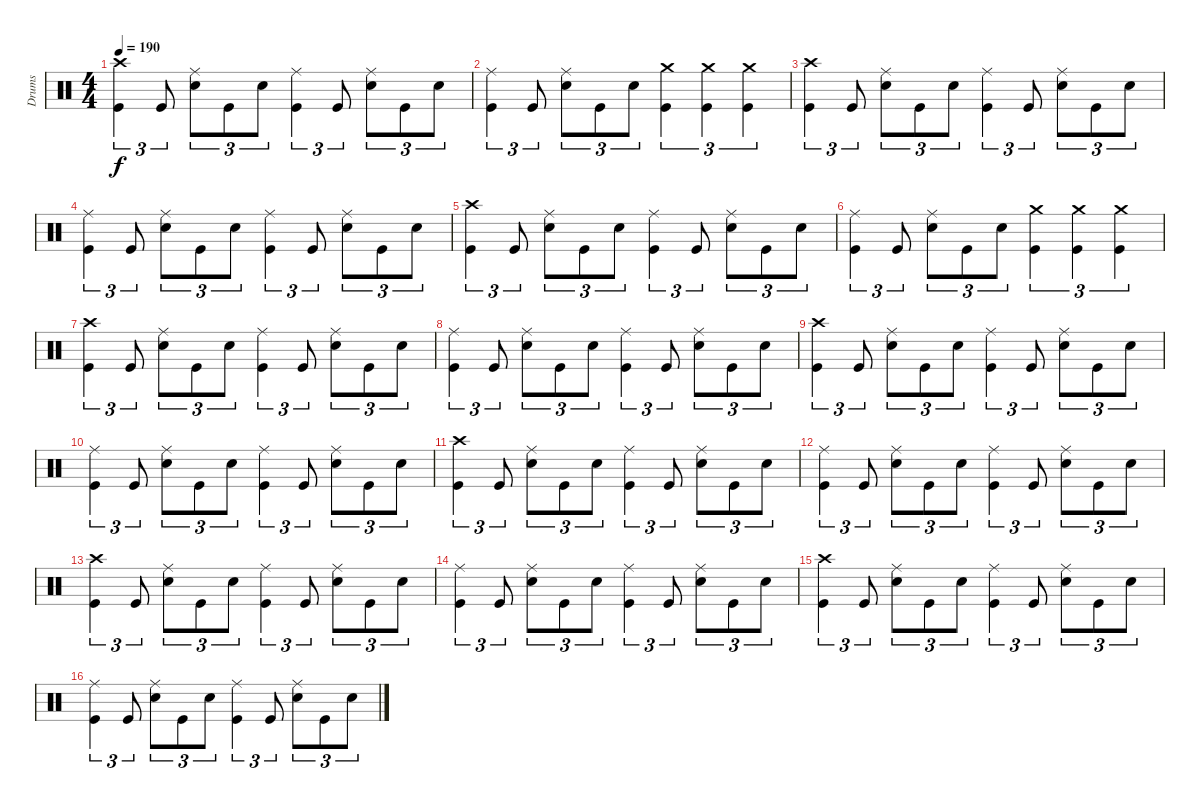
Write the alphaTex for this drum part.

\track ("Drums" "Drums") {instrument percussion}
\staff {score}
\articulation defaults
\ts (4 4)
\tempo 190
\clef neutral
\ks c
("Crash high (hit)" "Kick (hit)").4{tu (3 2) dy f} "Kick (hit)".8{tu (3 2)} ("Ride (middle)" "Snare (hit) 2").8{tu (3 2)} "Kick (hit)".8{tu (3 2)} "Snare (hit) 2".8{tu (3 2)} ("Ride (middle)" "Kick (hit)").4{tu (3 2)} "Kick (hit)".8{tu (3 2)} ("Ride (middle)" "Snare (hit) 2").8{tu (3 2)} "Kick (hit)".8{tu (3 2)} "Snare (hit) 2".8{tu (3 2)} |
("Ride (middle)" "Kick (hit)").4{tu (3 2)} "Kick (hit)".8{tu (3 2)} ("Ride (middle)" "Snare (hit) 2").8{tu (3 2)} "Kick (hit)".8{tu (3 2)} "Snare (hit) 2".8{tu (3 2)} ("Crash medium (hit)" "Kick (hit)").4{tu (3 2)} ("Crash medium (hit)" "Kick (hit)").4{tu (3 2)} ("Crash medium (hit)" "Kick (hit)").4{tu (3 2)} |
("Crash high (hit)" "Kick (hit)").4{tu (3 2)} "Kick (hit)".8{tu (3 2)} ("Ride (middle)" "Snare (hit) 2").8{tu (3 2)} "Kick (hit)".8{tu (3 2)} "Snare (hit) 2".8{tu (3 2)} ("Ride (middle)" "Kick (hit)").4{tu (3 2)} "Kick (hit)".8{tu (3 2)} ("Ride (middle)" "Snare (hit) 2").8{tu (3 2)} "Kick (hit)".8{tu (3 2)} "Snare (hit) 2".8{tu (3 2)} |
("Ride (middle)" "Kick (hit)").4{tu (3 2)} "Kick (hit)".8{tu (3 2)} ("Ride (middle)" "Snare (hit) 2").8{tu (3 2)} "Kick (hit)".8{tu (3 2)} "Snare (hit) 2".8{tu (3 2)} ("Ride (middle)" "Kick (hit)").4{tu (3 2)} "Kick (hit)".8{tu (3 2)} ("Ride (middle)" "Snare (hit) 2").8{tu (3 2)} "Kick (hit)".8{tu (3 2)} "Snare (hit) 2".8{tu (3 2)} |
("Crash high (hit)" "Kick (hit)").4{tu (3 2)} "Kick (hit)".8{tu (3 2)} ("Ride (middle)" "Snare (hit) 2").8{tu (3 2)} "Kick (hit)".8{tu (3 2)} "Snare (hit) 2".8{tu (3 2)} ("Ride (middle)" "Kick (hit)").4{tu (3 2)} "Kick (hit)".8{tu (3 2)} ("Ride (middle)" "Snare (hit) 2").8{tu (3 2)} "Kick (hit)".8{tu (3 2)} "Snare (hit) 2".8{tu (3 2)} |
("Ride (middle)" "Kick (hit)").4{tu (3 2)} "Kick (hit)".8{tu (3 2)} ("Ride (middle)" "Snare (hit) 2").8{tu (3 2)} "Kick (hit)".8{tu (3 2)} "Snare (hit) 2".8{tu (3 2)} ("Crash medium (hit)" "Kick (hit)").4{tu (3 2)} ("Crash medium (hit)" "Kick (hit)").4{tu (3 2)} ("Crash medium (hit)" "Kick (hit)").4{tu (3 2)} |
("Crash high (hit)" "Kick (hit)").4{tu (3 2)} "Kick (hit)".8{tu (3 2)} ("Ride (middle)" "Snare (hit) 2").8{tu (3 2)} "Kick (hit)".8{tu (3 2)} "Snare (hit) 2".8{tu (3 2)} ("Ride (middle)" "Kick (hit)").4{tu (3 2)} "Kick (hit)".8{tu (3 2)} ("Ride (middle)" "Snare (hit) 2").8{tu (3 2)} "Kick (hit)".8{tu (3 2)} "Snare (hit) 2".8{tu (3 2)} |
("Ride (middle)" "Kick (hit)").4{tu (3 2)} "Kick (hit)".8{tu (3 2)} ("Ride (middle)" "Snare (hit) 2").8{tu (3 2)} "Kick (hit)".8{tu (3 2)} "Snare (hit) 2".8{tu (3 2)} ("Ride (middle)" "Kick (hit)").4{tu (3 2)} "Kick (hit)".8{tu (3 2)} ("Ride (middle)" "Snare (hit) 2").8{tu (3 2)} "Kick (hit)".8{tu (3 2)} "Snare (hit) 2".8{tu (3 2)} |
("Crash high (hit)" "Kick (hit)").4{tu (3 2)} "Kick (hit)".8{tu (3 2)} ("Ride (middle)" "Snare (hit) 2").8{tu (3 2)} "Kick (hit)".8{tu (3 2)} "Snare (hit) 2".8{tu (3 2)} ("Ride (middle)" "Kick (hit)").4{tu (3 2)} "Kick (hit)".8{tu (3 2)} ("Ride (middle)" "Snare (hit) 2").8{tu (3 2)} "Kick (hit)".8{tu (3 2)} "Snare (hit) 2".8{tu (3 2)} |
("Ride (middle)" "Kick (hit)").4{tu (3 2)} "Kick (hit)".8{tu (3 2)} ("Ride (middle)" "Snare (hit) 2").8{tu (3 2)} "Kick (hit)".8{tu (3 2)} "Snare (hit) 2".8{tu (3 2)} ("Ride (middle)" "Kick (hit)").4{tu (3 2)} "Kick (hit)".8{tu (3 2)} ("Ride (middle)" "Snare (hit) 2").8{tu (3 2)} "Kick (hit)".8{tu (3 2)} "Snare (hit) 2".8{tu (3 2)} |
("Crash high (hit)" "Kick (hit)").4{tu (3 2)} "Kick (hit)".8{tu (3 2)} ("Ride (middle)" "Snare (hit) 2").8{tu (3 2)} "Kick (hit)".8{tu (3 2)} "Snare (hit) 2".8{tu (3 2)} ("Ride (middle)" "Kick (hit)").4{tu (3 2)} "Kick (hit)".8{tu (3 2)} ("Ride (middle)" "Snare (hit) 2").8{tu (3 2)} "Kick (hit)".8{tu (3 2)} "Snare (hit) 2".8{tu (3 2)} |
("Ride (middle)" "Kick (hit)").4{tu (3 2)} "Kick (hit)".8{tu (3 2)} ("Ride (middle)" "Snare (hit) 2").8{tu (3 2)} "Kick (hit)".8{tu (3 2)} "Snare (hit) 2".8{tu (3 2)} ("Ride (middle)" "Kick (hit)").4{tu (3 2)} "Kick (hit)".8{tu (3 2)} ("Ride (middle)" "Snare (hit) 2").8{tu (3 2)} "Kick (hit)".8{tu (3 2)} "Snare (hit) 2".8{tu (3 2)} |
("Crash high (hit)" "Kick (hit)").4{tu (3 2)} "Kick (hit)".8{tu (3 2)} ("Ride (middle)" "Snare (hit) 2").8{tu (3 2)} "Kick (hit)".8{tu (3 2)} "Snare (hit) 2".8{tu (3 2)} ("Ride (middle)" "Kick (hit)").4{tu (3 2)} "Kick (hit)".8{tu (3 2)} ("Ride (middle)" "Snare (hit) 2").8{tu (3 2)} "Kick (hit)".8{tu (3 2)} "Snare (hit) 2".8{tu (3 2)} |
("Ride (middle)" "Kick (hit)").4{tu (3 2)} "Kick (hit)".8{tu (3 2)} ("Ride (middle)" "Snare (hit) 2").8{tu (3 2)} "Kick (hit)".8{tu (3 2)} "Snare (hit) 2".8{tu (3 2)} ("Ride (middle)" "Kick (hit)").4{tu (3 2)} "Kick (hit)".8{tu (3 2)} ("Ride (middle)" "Snare (hit) 2").8{tu (3 2)} "Kick (hit)".8{tu (3 2)} "Snare (hit) 2".8{tu (3 2)} |
("Crash high (hit)" "Kick (hit)").4{tu (3 2)} "Kick (hit)".8{tu (3 2)} ("Ride (middle)" "Snare (hit) 2").8{tu (3 2)} "Kick (hit)".8{tu (3 2)} "Snare (hit) 2".8{tu (3 2)} ("Ride (middle)" "Kick (hit)").4{tu (3 2)} "Kick (hit)".8{tu (3 2)} ("Ride (middle)" "Snare (hit) 2").8{tu (3 2)} "Kick (hit)".8{tu (3 2)} "Snare (hit) 2".8{tu (3 2)} |
("Ride (middle)" "Kick (hit)").4{tu (3 2)} "Kick (hit)".8{tu (3 2)} ("Ride (middle)" "Snare (hit) 2").8{tu (3 2)} "Kick (hit)".8{tu (3 2)} "Snare (hit) 2".8{tu (3 2)} ("Ride (middle)" "Kick (hit)").4{tu (3 2)} "Kick (hit)".8{tu (3 2)} ("Ride (middle)" "Snare (hit) 2").8{tu (3 2)} "Kick (hit)".8{tu (3 2)} "Snare (hit) 2".8{tu (3 2)}
